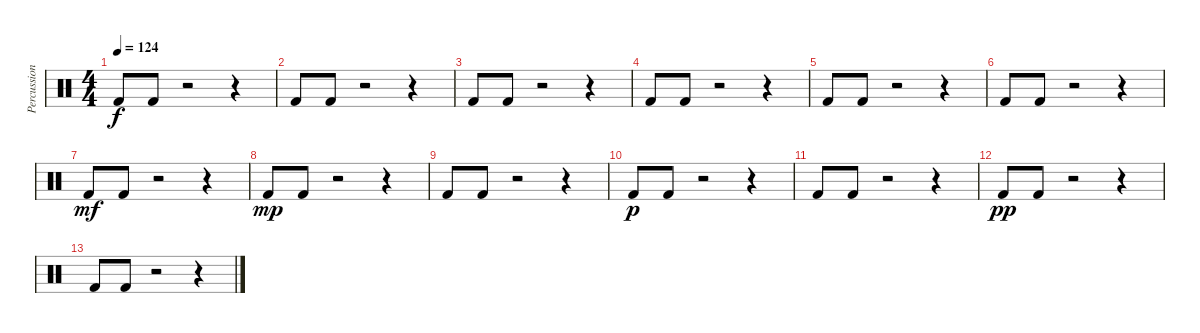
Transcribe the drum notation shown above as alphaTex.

\track ("Percussion" "Percussion") {instrument percussion}
\staff {score}
\articulation defaults
\ts (4 4)
\tempo 124
\clef neutral
\ks c "Kick (hit) 2".8{dy f} "Kick (hit) 2".8
r.2 r.4 |
"Kick (hit) 2".8 "Kick (hit) 2".8 r.2 r.4 |
"Kick (hit) 2".8 "Kick (hit) 2".8 r.2 r.4 |
"Kick (hit) 2".8 "Kick (hit) 2".8 r.2 r.4 |
"Kick (hit) 2".8 "Kick (hit) 2".8 r.2 r.4 |
"Kick (hit) 2".8 "Kick (hit) 2".8 r.2 r.4 |
"Kick (hit) 2".8{dy mf} "Kick (hit) 2".8 r.2 r.4 |
"Kick (hit) 2".8{dy mp} "Kick (hit) 2".8 r.2 r.4 |
"Kick (hit) 2".8 "Kick (hit) 2".8 r.2 r.4 |
"Kick (hit) 2".8{dy p} "Kick (hit) 2".8 r.2 r.4 |
"Kick (hit) 2".8 "Kick (hit) 2".8 r.2 r.4 |
"Kick (hit) 2".8{dy pp} "Kick (hit) 2".8 r.2 r.4 |
"Kick (hit) 2".8 "Kick (hit) 2".8 r.2 r.4
